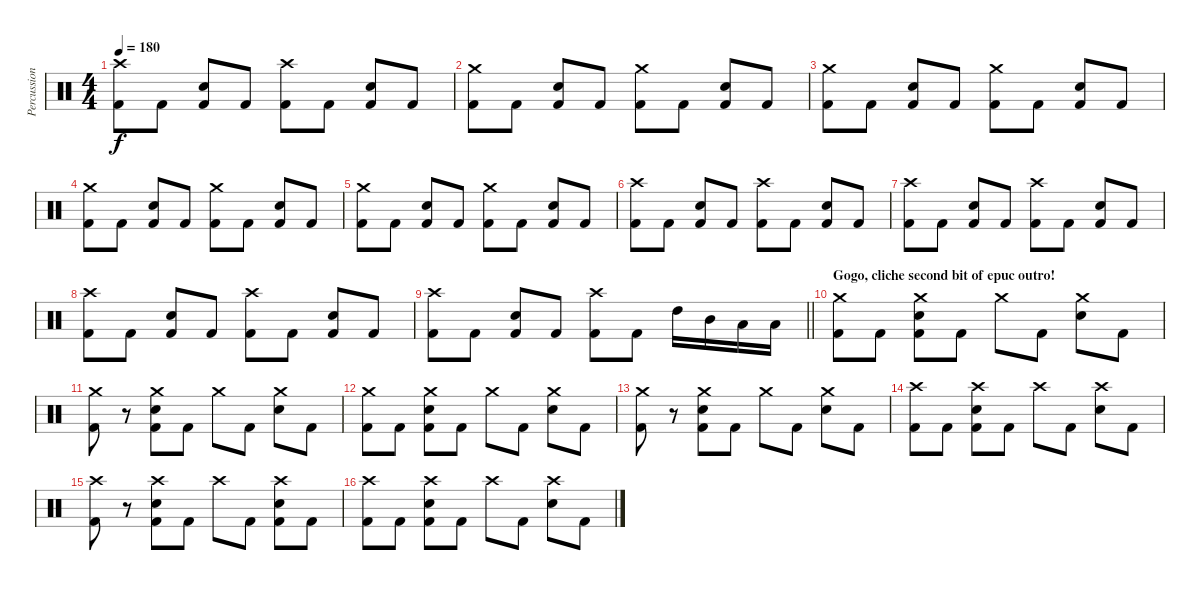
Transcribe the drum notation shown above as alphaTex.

\track ("Percussion" "Percussion") {instrument percussion}
\staff {score}
\articulation defaults
\ts (4 4)
\tempo 180
\clef neutral
\ks c
("Crash high (hit)" "Kick (hit) 2").8{dy f} "Kick (hit) 2".8 ("Electric Snare (hit)" "Kick (hit) 2").8 "Kick (hit) 2".8 ("Crash high (hit)" "Kick (hit) 2").8 "Kick (hit) 2".8 ("Electric Snare (hit)" "Kick (hit) 2").8 "Kick (hit) 2".8 |
("Crash medium (hit)" "Kick (hit) 2").8 "Kick (hit) 2".8 ("Electric Snare (hit)" "Kick (hit) 2").8 "Kick (hit) 2".8 ("Crash medium (hit)" "Kick (hit) 2").8 "Kick (hit) 2".8 ("Electric Snare (hit)" "Kick (hit) 2").8 "Kick (hit) 2".8 |
("Crash medium (hit)" "Kick (hit) 2").8 "Kick (hit) 2".8 ("Electric Snare (hit)" "Kick (hit) 2").8 "Kick (hit) 2".8 ("Crash medium (hit)" "Kick (hit) 2").8 "Kick (hit) 2".8 ("Electric Snare (hit)" "Kick (hit) 2").8 "Kick (hit) 2".8 |
("Crash medium (hit)" "Kick (hit) 2").8 "Kick (hit) 2".8 ("Electric Snare (hit)" "Kick (hit) 2").8 "Kick (hit) 2".8 ("Crash medium (hit)" "Kick (hit) 2").8 "Kick (hit) 2".8 ("Electric Snare (hit)" "Kick (hit) 2").8 "Kick (hit) 2".8 |
("Crash medium (hit)" "Kick (hit) 2").8 "Kick (hit) 2".8 ("Electric Snare (hit)" "Kick (hit) 2").8 "Kick (hit) 2".8 ("Crash medium (hit)" "Kick (hit) 2").8 "Kick (hit) 2".8 ("Electric Snare (hit)" "Kick (hit) 2").8 "Kick (hit) 2".8 |
("Crash high (hit)" "Kick (hit) 2").8 "Kick (hit) 2".8 ("Electric Snare (hit)" "Kick (hit) 2").8 "Kick (hit) 2".8 ("Crash high (hit)" "Kick (hit) 2").8 "Kick (hit) 2".8 ("Electric Snare (hit)" "Kick (hit) 2").8 "Kick (hit) 2".8 |
("Crash high (hit)" "Kick (hit) 2").8 "Kick (hit) 2".8 ("Electric Snare (hit)" "Kick (hit) 2").8 "Kick (hit) 2".8 ("Crash high (hit)" "Kick (hit) 2").8 "Kick (hit) 2".8 ("Electric Snare (hit)" "Kick (hit) 2").8 "Kick (hit) 2".8 |
("Crash high (hit)" "Kick (hit) 2").8 "Kick (hit) 2".8 ("Electric Snare (hit)" "Kick (hit) 2").8 "Kick (hit) 2".8 ("Crash high (hit)" "Kick (hit) 2").8 "Kick (hit) 2".8 ("Electric Snare (hit)" "Kick (hit) 2").8 "Kick (hit) 2".8 |
\barLineRight lightlight
("Crash high (hit)" "Kick (hit) 2").8 "Kick (hit) 2".8 ("Electric Snare (hit)" "Kick (hit) 2").8 "Kick (hit) 2".8 ("Crash high (hit)" "Kick (hit) 2").8 "Kick (hit) 2".8 "High Tom (hit)".16 "Mid Tom (hit)".16 "Low Tom (hit)".16 "Low Floor Tom (hit)".16 |
\section ("" "Gogo, cliche second bit of epuc outro!")
("Crash medium (hit)" "Kick (hit) 2").8 "Kick (hit) 2".8 ("Crash medium (hit)" "Electric Snare (hit)" "Kick (hit) 2").8 "Kick (hit) 2".8 "Crash medium (hit)".8 "Kick (hit) 2".8 ("Crash medium (hit)" "Electric Snare (hit)").8 "Kick (hit) 2".8 |
("Crash medium (hit)" "Kick (hit) 2").8 r.8 ("Crash medium (hit)" "Electric Snare (hit)" "Kick (hit) 2").8 "Kick (hit) 2".8 "Crash medium (hit)".8 "Kick (hit) 2".8 ("Crash medium (hit)" "Electric Snare (hit)").8 "Kick (hit) 2".8 |
("Crash medium (hit)" "Kick (hit) 2").8 "Kick (hit) 2".8 ("Crash medium (hit)" "Electric Snare (hit)" "Kick (hit) 2").8 "Kick (hit) 2".8 "Crash medium (hit)".8 "Kick (hit) 2".8 ("Crash medium (hit)" "Electric Snare (hit)").8 "Kick (hit) 2".8 |
("Crash medium (hit)" "Kick (hit) 2").8 r.8 ("Crash medium (hit)" "Electric Snare (hit)" "Kick (hit) 2").8 "Kick (hit) 2".8 "Crash medium (hit)".8 "Kick (hit) 2".8 ("Crash medium (hit)" "Electric Snare (hit)").8 "Kick (hit) 2".8 |
("Crash high (hit)" "Kick (hit) 2").8 "Kick (hit) 2".8 ("Crash high (hit)" "Electric Snare (hit)" "Kick (hit) 2").8 "Kick (hit) 2".8 "Crash high (hit)".8 "Kick (hit) 2".8 ("Crash high (hit)" "Electric Snare (hit)").8 "Kick (hit) 2".8 |
("Crash high (hit)" "Kick (hit) 2").8 r.8 ("Crash high (hit)" "Electric Snare (hit)" "Kick (hit) 2").8 "Kick (hit) 2".8 "Crash high (hit)".8 "Kick (hit) 2".8 ("Crash high (hit)" "Electric Snare (hit)" "Kick (hit) 2").8 "Kick (hit) 2".8 |
("Crash high (hit)" "Kick (hit) 2").8 "Kick (hit) 2".8 ("Crash high (hit)" "Electric Snare (hit)" "Kick (hit) 2").8 "Kick (hit) 2".8 "Crash high (hit)".8 "Kick (hit) 2".8 ("Crash high (hit)" "Electric Snare (hit)").8 "Kick (hit) 2".8
